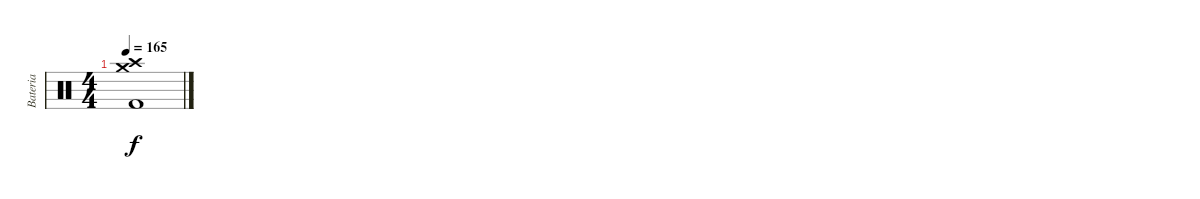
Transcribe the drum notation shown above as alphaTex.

\track ("Bateria" "Bateria") {instrument percussion}
\staff {score}
\articulation defaults
\ts (4 4)
\tempo 165
\clef neutral
\ks c
("Crash medium (hit)" "Crash high (hit)" "Kick (hit) 2").1{dy f}
